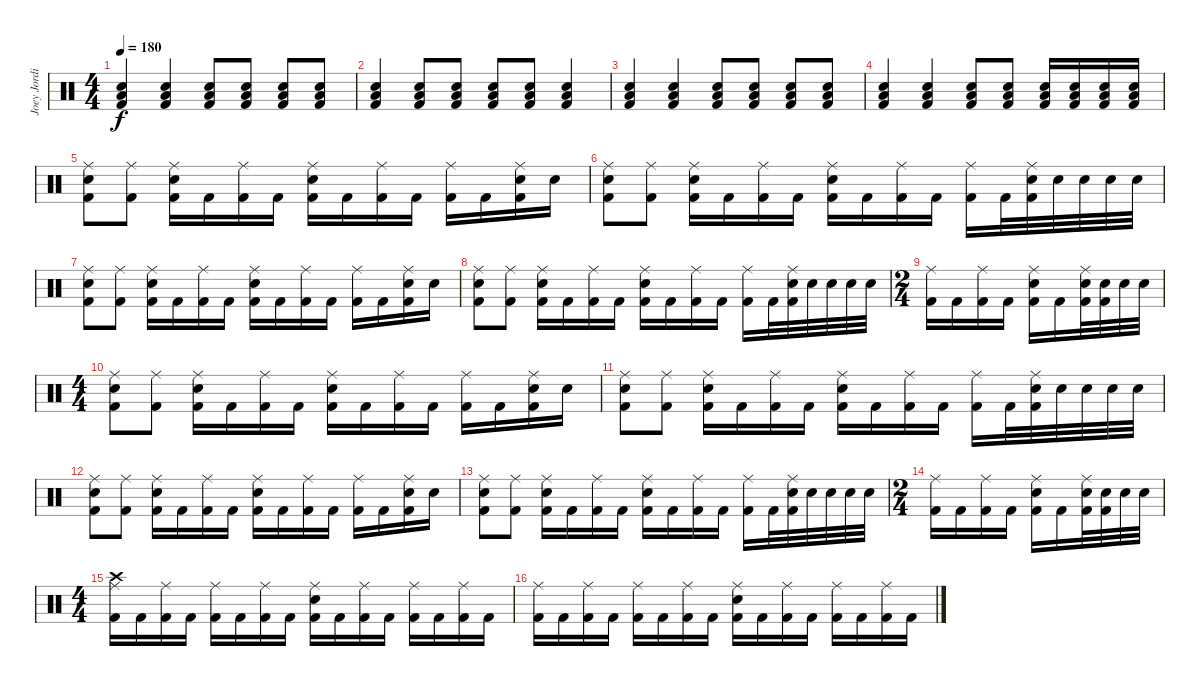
\track ("Joey Jordison" "Joey Jordi") {instrument percussion}
\staff {score}
\articulation defaults
\ts (4 4)
\tempo 180
\clef neutral
\ks c
("Low Tom (hit)" "Electric Snare (hit)" "Kick (hit) 2").4{dy f} ("Low Tom (hit)" "Electric Snare (hit)" "Kick (hit) 2").4 ("Low Tom (hit)" "Electric Snare (hit)" "Kick (hit) 2").8 ("Low Tom (hit)" "Electric Snare (hit)" "Kick (hit) 2").8 ("Low Tom (hit)" "Electric Snare (hit)" "Kick (hit) 2").8 ("Low Tom (hit)" "Electric Snare (hit)" "Kick (hit) 2").8 |
("Low Tom (hit)" "Electric Snare (hit)" "Kick (hit) 2").4 ("Low Tom (hit)" "Electric Snare (hit)" "Kick (hit) 2").8 ("Low Tom (hit)" "Electric Snare (hit)" "Kick (hit) 2").8 ("Low Tom (hit)" "Electric Snare (hit)" "Kick (hit) 2").8 ("Low Tom (hit)" "Electric Snare (hit)" "Kick (hit) 2").8 ("Low Tom (hit)" "Electric Snare (hit)" "Kick (hit) 2").4 |
("Low Tom (hit)" "Electric Snare (hit)" "Kick (hit) 2").4 ("Low Tom (hit)" "Electric Snare (hit)" "Kick (hit) 2").4 ("Low Tom (hit)" "Electric Snare (hit)" "Kick (hit) 2").8 ("Low Tom (hit)" "Electric Snare (hit)" "Kick (hit) 2").8 ("Low Tom (hit)" "Electric Snare (hit)" "Kick (hit) 2").8 ("Low Tom (hit)" "Electric Snare (hit)" "Kick (hit) 2").8 |
("Low Tom (hit)" "Electric Snare (hit)" "Kick (hit) 2").4 ("Low Tom (hit)" "Electric Snare (hit)" "Kick (hit) 2").4 ("Low Tom (hit)" "Electric Snare (hit)" "Kick (hit) 2").8 ("Low Tom (hit)" "Electric Snare (hit)" "Kick (hit) 2").8 ("Low Tom (hit)" "Electric Snare (hit)" "Kick (hit) 2").16 ("Low Tom (hit)" "Electric Snare (hit)" "Kick (hit) 2").16 ("Low Tom (hit)" "Electric Snare (hit)" "Kick (hit) 2").16 ("Low Tom (hit)" "Electric Snare (hit)" "Kick (hit) 2").16 |
("Ride (middle)" "Kick (hit) 2" "Electric Snare (hit)").8 ("Ride (middle)" "Kick (hit) 2").8 ("Ride (middle)" "Electric Snare (hit)" "Kick (hit) 2").16 "Kick (hit) 2".16 ("Ride (middle)" "Kick (hit) 2").16 "Kick (hit) 2".16 ("Ride (middle)" "Kick (hit) 2" "Electric Snare (hit)").16 "Kick (hit) 2".16 ("Ride (middle)" "Kick (hit) 2").16 "Kick (hit) 2".16 ("Ride (middle)" "Kick (hit) 2").16 "Kick (hit) 2".16 ("Ride (middle)" "Kick (hit) 2" "Electric Snare (hit)").16 "Electric Snare (hit)".16 |
("Ride (middle)" "Kick (hit) 2" "Electric Snare (hit)").8 ("Ride (middle)" "Kick (hit) 2").8 ("Ride (middle)" "Electric Snare (hit)" "Kick (hit) 2").16 "Kick (hit) 2".16 ("Ride (middle)" "Kick (hit) 2").16 "Kick (hit) 2".16 ("Ride (middle)" "Kick (hit) 2" "Electric Snare (hit)").16 "Kick (hit) 2".16 ("Ride (middle)" "Kick (hit) 2").16 "Kick (hit) 2".16 ("Ride (middle)" "Kick (hit) 2").16 "Kick (hit) 2".32 ("Ride (middle)" "Kick (hit) 2" "Electric Snare (hit)").32 "Electric Snare (hit)".32 "Electric Snare (hit)".32 "Electric Snare (hit)".32 "Electric Snare (hit)".32 |
("Ride (middle)" "Kick (hit) 2" "Electric Snare (hit)").8 ("Ride (middle)" "Kick (hit) 2").8 ("Ride (middle)" "Electric Snare (hit)" "Kick (hit) 2").16 "Kick (hit) 2".16 ("Ride (middle)" "Kick (hit) 2").16 "Kick (hit) 2".16 ("Ride (middle)" "Kick (hit) 2" "Electric Snare (hit)").16 "Kick (hit) 2".16 ("Ride (middle)" "Kick (hit) 2").16 "Kick (hit) 2".16 ("Ride (middle)" "Kick (hit) 2").16 "Kick (hit) 2".16 ("Ride (middle)" "Kick (hit) 2" "Electric Snare (hit)").16 "Electric Snare (hit)".16 |
("Ride (middle)" "Kick (hit) 2" "Electric Snare (hit)").8 ("Ride (middle)" "Kick (hit) 2").8 ("Ride (middle)" "Electric Snare (hit)" "Kick (hit) 2").16 "Kick (hit) 2".16 ("Ride (middle)" "Kick (hit) 2").16 "Kick (hit) 2".16 ("Ride (middle)" "Kick (hit) 2" "Electric Snare (hit)").16 "Kick (hit) 2".16 ("Ride (middle)" "Kick (hit) 2").16 "Kick (hit) 2".16 ("Ride (middle)" "Kick (hit) 2").16 "Kick (hit) 2".32 ("Ride (middle)" "Kick (hit) 2" "Electric Snare (hit)").32 "Electric Snare (hit)".32 "Electric Snare (hit)".32 "Electric Snare (hit)".32 "Electric Snare (hit)".32 |
\ts (2 4)
("Ride (middle)" "Kick (hit) 2").16 "Kick (hit) 2".16 ("Ride (middle)" "Kick (hit) 2").16 "Kick (hit) 2".16 ("Ride (middle)" "Electric Snare (hit)" "Kick (hit) 2").16 "Kick (hit) 2".16 ("Ride (middle)" "Electric Snare (hit)" "Kick (hit) 2").32 ("Electric Snare (hit)" "Kick (hit) 2").32 "Electric Snare (hit)".32 "Electric Snare (hit)".32 |
\ts (4 4)
("Ride (middle)" "Kick (hit) 2" "Electric Snare (hit)").8 ("Ride (middle)" "Kick (hit) 2").8 ("Ride (middle)" "Electric Snare (hit)" "Kick (hit) 2").16 "Kick (hit) 2".16 ("Ride (middle)" "Kick (hit) 2").16 "Kick (hit) 2".16 ("Ride (middle)" "Kick (hit) 2" "Electric Snare (hit)").16 "Kick (hit) 2".16 ("Ride (middle)" "Kick (hit) 2").16 "Kick (hit) 2".16 ("Ride (middle)" "Kick (hit) 2").16 "Kick (hit) 2".16 ("Ride (middle)" "Kick (hit) 2" "Electric Snare (hit)").16 "Electric Snare (hit)".16 |
("Ride (middle)" "Kick (hit) 2" "Electric Snare (hit)").8 ("Ride (middle)" "Kick (hit) 2").8 ("Ride (middle)" "Electric Snare (hit)" "Kick (hit) 2").16 "Kick (hit) 2".16 ("Ride (middle)" "Kick (hit) 2").16 "Kick (hit) 2".16 ("Ride (middle)" "Kick (hit) 2" "Electric Snare (hit)").16 "Kick (hit) 2".16 ("Ride (middle)" "Kick (hit) 2").16 "Kick (hit) 2".16 ("Ride (middle)" "Kick (hit) 2").16 "Kick (hit) 2".32 ("Ride (middle)" "Kick (hit) 2" "Electric Snare (hit)").32 "Electric Snare (hit)".32 "Electric Snare (hit)".32 "Electric Snare (hit)".32 "Electric Snare (hit)".32 |
("Ride (middle)" "Kick (hit) 2" "Electric Snare (hit)").8 ("Ride (middle)" "Kick (hit) 2").8 ("Ride (middle)" "Electric Snare (hit)" "Kick (hit) 2").16 "Kick (hit) 2".16 ("Ride (middle)" "Kick (hit) 2").16 "Kick (hit) 2".16 ("Ride (middle)" "Kick (hit) 2" "Electric Snare (hit)").16 "Kick (hit) 2".16 ("Ride (middle)" "Kick (hit) 2").16 "Kick (hit) 2".16 ("Ride (middle)" "Kick (hit) 2").16 "Kick (hit) 2".16 ("Ride (middle)" "Kick (hit) 2" "Electric Snare (hit)").16 "Electric Snare (hit)".16 |
("Ride (middle)" "Kick (hit) 2" "Electric Snare (hit)").8 ("Ride (middle)" "Kick (hit) 2").8 ("Ride (middle)" "Electric Snare (hit)" "Kick (hit) 2").16 "Kick (hit) 2".16 ("Ride (middle)" "Kick (hit) 2").16 "Kick (hit) 2".16 ("Ride (middle)" "Kick (hit) 2" "Electric Snare (hit)").16 "Kick (hit) 2".16 ("Ride (middle)" "Kick (hit) 2").16 "Kick (hit) 2".16 ("Ride (middle)" "Kick (hit) 2").16 "Kick (hit) 2".32 ("Ride (middle)" "Kick (hit) 2" "Electric Snare (hit)").32 "Electric Snare (hit)".32 "Electric Snare (hit)".32 "Electric Snare (hit)".32 "Electric Snare (hit)".32 |
\ts (2 4)
("Ride (middle)" "Kick (hit) 2").16 "Kick (hit) 2".16 ("Ride (middle)" "Kick (hit) 2").16 "Kick (hit) 2".16 ("Ride (middle)" "Electric Snare (hit)" "Kick (hit) 2").16 "Kick (hit) 2".16 ("Ride (middle)" "Electric Snare (hit)" "Kick (hit) 2").32 ("Electric Snare (hit)" "Kick (hit) 2").32 "Electric Snare (hit)".32 "Electric Snare (hit)".32 |
\ts (4 4)
("Crash high (hit)" "Ride (middle)" "Kick (hit) 2").16 "Kick (hit) 2".16 ("Ride (middle)" "Kick (hit) 2").16 "Kick (hit) 2".16 ("Ride (middle)" "Kick (hit) 2").16 "Kick (hit) 2".16 ("Ride (middle)" "Kick (hit) 2").16 "Kick (hit) 2".16 ("Ride (middle)" "Electric Snare (hit)" "Kick (hit) 2").16 "Kick (hit) 2".16 ("Ride (middle)" "Kick (hit) 2").16 "Kick (hit) 2".16 ("Ride (middle)" "Kick (hit) 2").16 "Kick (hit) 2".16 ("Ride (middle)" "Kick (hit) 2").16 "Kick (hit) 2".16 |
("Ride (middle)" "Kick (hit) 2").16 "Kick (hit) 2".16 ("Ride (middle)" "Kick (hit) 2").16 "Kick (hit) 2".16 ("Ride (middle)" "Kick (hit) 2").16 "Kick (hit) 2".16 ("Ride (middle)" "Kick (hit) 2").16 "Kick (hit) 2".16 ("Ride (middle)" "Electric Snare (hit)" "Kick (hit) 2").16 "Kick (hit) 2".16 ("Ride (middle)" "Kick (hit) 2").16 "Kick (hit) 2".16 ("Ride (middle)" "Kick (hit) 2").16 "Kick (hit) 2".16 ("Ride (middle)" "Kick (hit) 2").16 "Kick (hit) 2".16
